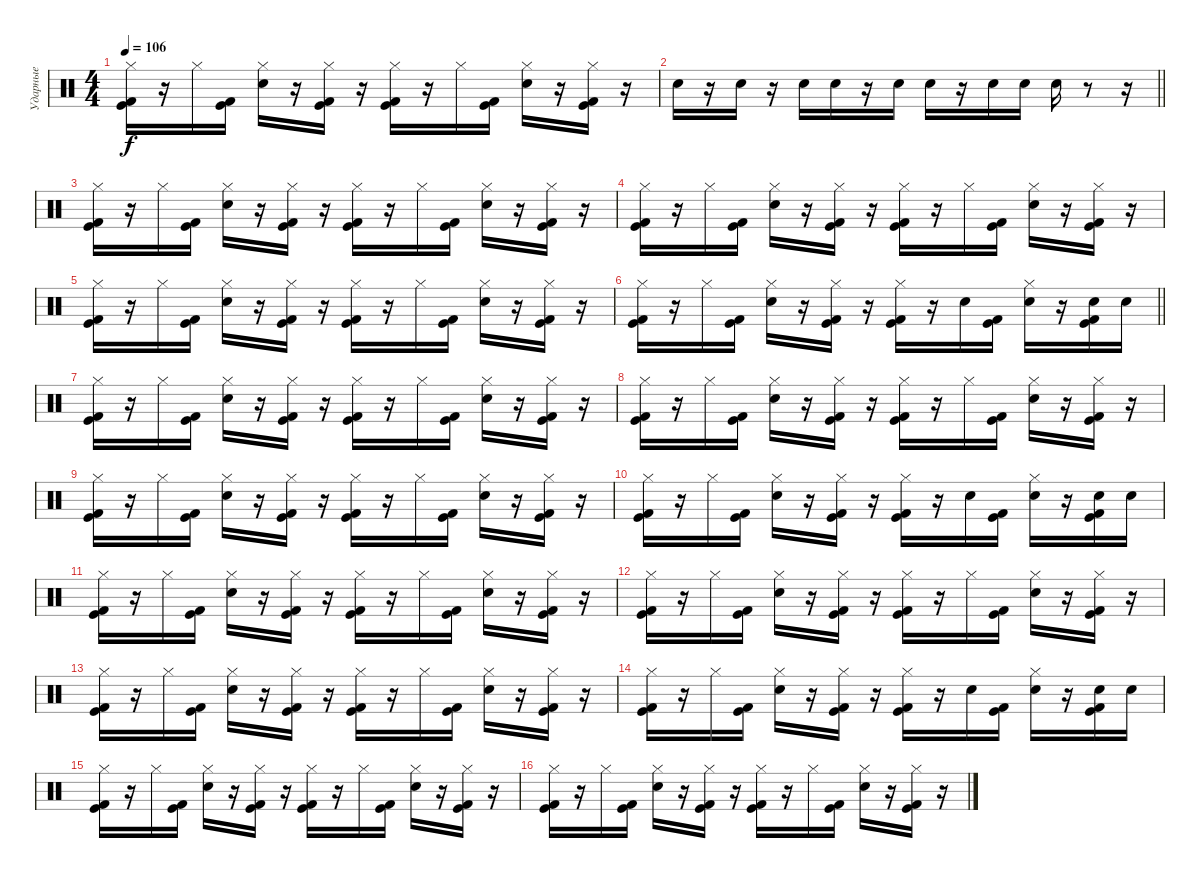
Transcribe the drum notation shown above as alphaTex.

\track ("Ударные" "Ударные") {instrument percussion}
\staff {score}
\articulation defaults
\ts (4 4)
\tempo 106
\clef neutral
\ks c
("Hi-Hat (closed)" "Kick (hit) 2" "Kick (hit)").16{dy f} r.16 "Hi-Hat (closed)".16 ("Kick (hit) 2" "Kick (hit)").16 ("Hi-Hat (closed)" "Electric Snare (hit)").16 r.16 ("Hi-Hat (closed)" "Kick (hit) 2" "Kick (hit)").16 r.16 ("Hi-Hat (closed)" "Kick (hit) 2" "Kick (hit)").16 r.16 "Hi-Hat (closed)".16 ("Kick (hit) 2" "Kick (hit)").16 ("Hi-Hat (closed)" "Electric Snare (hit)").16 r.16 ("Hi-Hat (closed)" "Kick (hit) 2" "Kick (hit)").16 r.16 |
\barLineRight lightlight "Electric Snare (hit)".16
r.16 "Electric Snare (hit)".16 r.16 "Electric Snare (hit)".16 "Electric Snare (hit)".16 r.16 "Electric Snare (hit)".16 "Electric Snare (hit)".16 r.16 "Electric Snare (hit)".16 "Electric Snare (hit)".16 "Electric Snare (hit)".16 r.8 r.16 |
("Hi-Hat (closed)" "Kick (hit) 2" "Kick (hit)").16 r.16 "Hi-Hat (closed)".16 ("Kick (hit) 2" "Kick (hit)").16 ("Hi-Hat (closed)" "Electric Snare (hit)").16 r.16 ("Hi-Hat (closed)" "Kick (hit) 2" "Kick (hit)").16 r.16 ("Hi-Hat (closed)" "Kick (hit) 2" "Kick (hit)").16 r.16 "Hi-Hat (closed)".16 ("Kick (hit) 2" "Kick (hit)").16 ("Hi-Hat (closed)" "Electric Snare (hit)").16 r.16 ("Hi-Hat (closed)" "Kick (hit) 2" "Kick (hit)").16 r.16 |
("Hi-Hat (closed)" "Kick (hit) 2" "Kick (hit)").16 r.16 "Hi-Hat (closed)".16 ("Kick (hit) 2" "Kick (hit)").16 ("Hi-Hat (closed)" "Electric Snare (hit)").16 r.16 ("Hi-Hat (closed)" "Kick (hit) 2" "Kick (hit)").16 r.16 ("Hi-Hat (closed)" "Kick (hit) 2" "Kick (hit)").16 r.16 "Hi-Hat (closed)".16 ("Kick (hit) 2" "Kick (hit)").16 ("Hi-Hat (closed)" "Electric Snare (hit)").16 r.16 ("Hi-Hat (closed)" "Kick (hit) 2" "Kick (hit)").16 r.16 |
("Hi-Hat (closed)" "Kick (hit) 2" "Kick (hit)").16 r.16 "Hi-Hat (closed)".16 ("Kick (hit) 2" "Kick (hit)").16 ("Hi-Hat (closed)" "Electric Snare (hit)").16 r.16 ("Hi-Hat (closed)" "Kick (hit) 2" "Kick (hit)").16 r.16 ("Hi-Hat (closed)" "Kick (hit) 2" "Kick (hit)").16 r.16 "Hi-Hat (closed)".16 ("Kick (hit) 2" "Kick (hit)").16 ("Hi-Hat (closed)" "Electric Snare (hit)").16 r.16 ("Hi-Hat (closed)" "Kick (hit) 2" "Kick (hit)").16 r.16 |
\barLineRight lightlight
("Hi-Hat (closed)" "Kick (hit) 2" "Kick (hit)").16 r.16 "Hi-Hat (closed)".16 ("Kick (hit) 2" "Kick (hit)").16 ("Hi-Hat (closed)" "Electric Snare (hit)").16 r.16 ("Hi-Hat (closed)" "Kick (hit) 2" "Kick (hit)").16 r.16 ("Hi-Hat (closed)" "Kick (hit) 2" "Kick (hit)").16 r.16 "Electric Snare (hit)".16 ("Kick (hit) 2" "Kick (hit)").16 ("Hi-Hat (closed)" "Electric Snare (hit)").16 r.16 ("Electric Snare (hit)" "Kick (hit) 2" "Kick (hit)").16 "Electric Snare (hit)".16 |
("Hi-Hat (closed)" "Kick (hit) 2" "Kick (hit)").16 r.16 "Hi-Hat (closed)".16 ("Kick (hit) 2" "Kick (hit)").16 ("Hi-Hat (closed)" "Electric Snare (hit)").16 r.16 ("Hi-Hat (closed)" "Kick (hit) 2" "Kick (hit)").16 r.16 ("Hi-Hat (closed)" "Kick (hit) 2" "Kick (hit)").16 r.16 "Hi-Hat (closed)".16 ("Kick (hit) 2" "Kick (hit)").16 ("Hi-Hat (closed)" "Electric Snare (hit)").16 r.16 ("Hi-Hat (closed)" "Kick (hit) 2" "Kick (hit)").16 r.16 |
("Hi-Hat (closed)" "Kick (hit) 2" "Kick (hit)").16 r.16 "Hi-Hat (closed)".16 ("Kick (hit) 2" "Kick (hit)").16 ("Hi-Hat (closed)" "Electric Snare (hit)").16 r.16 ("Hi-Hat (closed)" "Kick (hit) 2" "Kick (hit)").16 r.16 ("Hi-Hat (closed)" "Kick (hit) 2" "Kick (hit)").16 r.16 "Hi-Hat (closed)".16 ("Kick (hit) 2" "Kick (hit)").16 ("Hi-Hat (closed)" "Electric Snare (hit)").16 r.16 ("Hi-Hat (closed)" "Kick (hit) 2" "Kick (hit)").16 r.16 |
("Hi-Hat (closed)" "Kick (hit) 2" "Kick (hit)").16 r.16 "Hi-Hat (closed)".16 ("Kick (hit) 2" "Kick (hit)").16 ("Hi-Hat (closed)" "Electric Snare (hit)").16 r.16 ("Hi-Hat (closed)" "Kick (hit) 2" "Kick (hit)").16 r.16 ("Hi-Hat (closed)" "Kick (hit) 2" "Kick (hit)").16 r.16 "Hi-Hat (closed)".16 ("Kick (hit) 2" "Kick (hit)").16 ("Hi-Hat (closed)" "Electric Snare (hit)").16 r.16 ("Hi-Hat (closed)" "Kick (hit) 2" "Kick (hit)").16 r.16 |
("Hi-Hat (closed)" "Kick (hit) 2" "Kick (hit)").16 r.16 "Hi-Hat (closed)".16 ("Kick (hit) 2" "Kick (hit)").16 ("Hi-Hat (closed)" "Electric Snare (hit)").16 r.16 ("Hi-Hat (closed)" "Kick (hit) 2" "Kick (hit)").16 r.16 ("Hi-Hat (closed)" "Kick (hit) 2" "Kick (hit)").16 r.16 "Electric Snare (hit)".16 ("Kick (hit) 2" "Kick (hit)").16 ("Hi-Hat (closed)" "Electric Snare (hit)").16 r.16 ("Electric Snare (hit)" "Kick (hit) 2" "Kick (hit)").16 "Electric Snare (hit)".16 |
("Hi-Hat (closed)" "Kick (hit) 2" "Kick (hit)").16 r.16 "Hi-Hat (closed)".16 ("Kick (hit) 2" "Kick (hit)").16 ("Hi-Hat (closed)" "Electric Snare (hit)").16 r.16 ("Hi-Hat (closed)" "Kick (hit) 2" "Kick (hit)").16 r.16 ("Hi-Hat (closed)" "Kick (hit) 2" "Kick (hit)").16 r.16 "Hi-Hat (closed)".16 ("Kick (hit) 2" "Kick (hit)").16 ("Hi-Hat (closed)" "Electric Snare (hit)").16 r.16 ("Hi-Hat (closed)" "Kick (hit) 2" "Kick (hit)").16 r.16 |
("Hi-Hat (closed)" "Kick (hit) 2" "Kick (hit)").16 r.16 "Hi-Hat (closed)".16 ("Kick (hit) 2" "Kick (hit)").16 ("Hi-Hat (closed)" "Electric Snare (hit)").16 r.16 ("Hi-Hat (closed)" "Kick (hit) 2" "Kick (hit)").16 r.16 ("Hi-Hat (closed)" "Kick (hit) 2" "Kick (hit)").16 r.16 "Hi-Hat (closed)".16 ("Kick (hit) 2" "Kick (hit)").16 ("Hi-Hat (closed)" "Electric Snare (hit)").16 r.16 ("Hi-Hat (closed)" "Kick (hit) 2" "Kick (hit)").16 r.16 |
("Hi-Hat (closed)" "Kick (hit) 2" "Kick (hit)").16 r.16 "Hi-Hat (closed)".16 ("Kick (hit) 2" "Kick (hit)").16 ("Hi-Hat (closed)" "Electric Snare (hit)").16 r.16 ("Hi-Hat (closed)" "Kick (hit) 2" "Kick (hit)").16 r.16 ("Hi-Hat (closed)" "Kick (hit) 2" "Kick (hit)").16 r.16 "Hi-Hat (closed)".16 ("Kick (hit) 2" "Kick (hit)").16 ("Hi-Hat (closed)" "Electric Snare (hit)").16 r.16 ("Hi-Hat (closed)" "Kick (hit) 2" "Kick (hit)").16 r.16 |
("Hi-Hat (closed)" "Kick (hit) 2" "Kick (hit)").16 r.16 "Hi-Hat (closed)".16 ("Kick (hit) 2" "Kick (hit)").16 ("Hi-Hat (closed)" "Electric Snare (hit)").16 r.16 ("Hi-Hat (closed)" "Kick (hit) 2" "Kick (hit)").16 r.16 ("Hi-Hat (closed)" "Kick (hit) 2" "Kick (hit)").16 r.16 "Electric Snare (hit)".16 ("Kick (hit) 2" "Kick (hit)").16 ("Hi-Hat (closed)" "Electric Snare (hit)").16 r.16 ("Electric Snare (hit)" "Kick (hit) 2" "Kick (hit)").16 "Electric Snare (hit)".16 |
("Hi-Hat (closed)" "Kick (hit) 2" "Kick (hit)").16 r.16 "Hi-Hat (closed)".16 ("Kick (hit) 2" "Kick (hit)").16 ("Hi-Hat (closed)" "Electric Snare (hit)").16 r.16 ("Hi-Hat (closed)" "Kick (hit) 2" "Kick (hit)").16 r.16 ("Hi-Hat (closed)" "Kick (hit) 2" "Kick (hit)").16 r.16 "Hi-Hat (closed)".16 ("Kick (hit) 2" "Kick (hit)").16 ("Hi-Hat (closed)" "Electric Snare (hit)").16 r.16 ("Hi-Hat (closed)" "Kick (hit) 2" "Kick (hit)").16 r.16 |
("Hi-Hat (closed)" "Kick (hit) 2" "Kick (hit)").16 r.16 "Hi-Hat (closed)".16 ("Kick (hit) 2" "Kick (hit)").16 ("Hi-Hat (closed)" "Electric Snare (hit)").16 r.16 ("Hi-Hat (closed)" "Kick (hit) 2" "Kick (hit)").16 r.16 ("Hi-Hat (closed)" "Kick (hit) 2" "Kick (hit)").16 r.16 "Hi-Hat (closed)".16 ("Kick (hit) 2" "Kick (hit)").16 ("Hi-Hat (closed)" "Electric Snare (hit)").16 r.16 ("Hi-Hat (closed)" "Kick (hit) 2" "Kick (hit)").16 r.16
